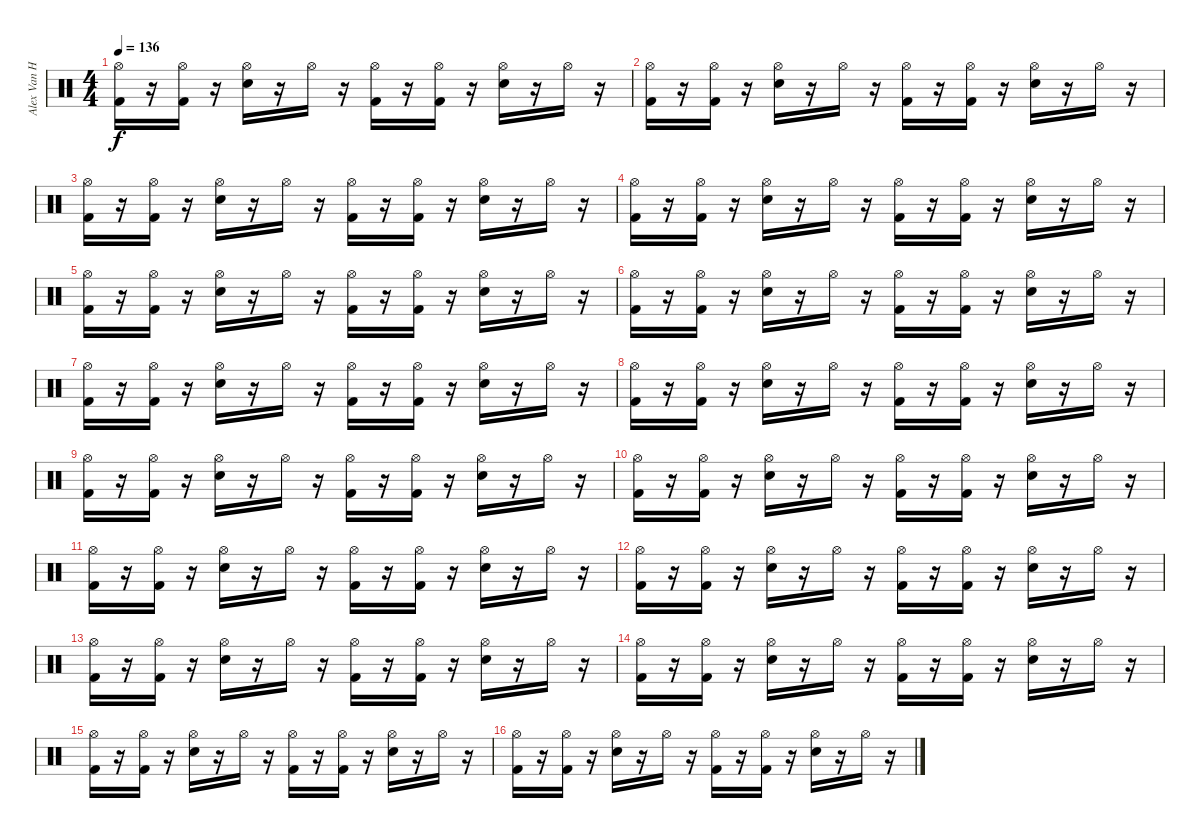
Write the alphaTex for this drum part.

\track ("Alex Van Halen (Drums)" "Alex Van H") {instrument percussion}
\staff {score}
\articulation defaults
\ts (4 4)
\tempo 136
\clef neutral
\ks c
("Hi-Hat (open)" "Kick (hit) 2").16{dy f} r.16 ("Hi-Hat (open)" "Kick (hit) 2").16 r.16 ("Hi-Hat (open)" "Snare (hit) 2").16 r.16 "Hi-Hat (open)".16 r.16 ("Hi-Hat (open)" "Kick (hit) 2").16 r.16 ("Hi-Hat (open)" "Kick (hit) 2").16 r.16 ("Hi-Hat (open)" "Snare (hit) 2").16 r.16 "Hi-Hat (open)".16 r.16 |
("Hi-Hat (open)" "Kick (hit) 2").16 r.16 ("Hi-Hat (open)" "Kick (hit) 2").16 r.16 ("Hi-Hat (open)" "Snare (hit) 2").16 r.16 "Hi-Hat (open)".16 r.16 ("Hi-Hat (open)" "Kick (hit) 2").16 r.16 ("Hi-Hat (open)" "Kick (hit) 2").16 r.16 ("Hi-Hat (open)" "Snare (hit) 2").16 r.16 "Hi-Hat (open)".16 r.16 |
("Hi-Hat (open)" "Kick (hit) 2").16 r.16 ("Hi-Hat (open)" "Kick (hit) 2").16 r.16 ("Hi-Hat (open)" "Snare (hit) 2").16 r.16 "Hi-Hat (open)".16 r.16 ("Hi-Hat (open)" "Kick (hit) 2").16 r.16 ("Hi-Hat (open)" "Kick (hit) 2").16 r.16 ("Hi-Hat (open)" "Snare (hit) 2").16 r.16 "Hi-Hat (open)".16 r.16 |
("Hi-Hat (open)" "Kick (hit) 2").16 r.16 ("Hi-Hat (open)" "Kick (hit) 2").16 r.16 ("Hi-Hat (open)" "Snare (hit) 2").16 r.16 "Hi-Hat (open)".16 r.16 ("Hi-Hat (open)" "Kick (hit) 2").16 r.16 ("Hi-Hat (open)" "Kick (hit) 2").16 r.16 ("Hi-Hat (open)" "Snare (hit) 2").16 r.16 "Hi-Hat (open)".16 r.16 |
("Hi-Hat (open)" "Kick (hit) 2").16 r.16 ("Hi-Hat (open)" "Kick (hit) 2").16 r.16 ("Hi-Hat (open)" "Snare (hit) 2").16 r.16 "Hi-Hat (open)".16 r.16 ("Hi-Hat (open)" "Kick (hit) 2").16 r.16 ("Hi-Hat (open)" "Kick (hit) 2").16 r.16 ("Hi-Hat (open)" "Snare (hit) 2").16 r.16 "Hi-Hat (open)".16 r.16 |
("Hi-Hat (open)" "Kick (hit) 2").16 r.16 ("Hi-Hat (open)" "Kick (hit) 2").16 r.16 ("Hi-Hat (open)" "Snare (hit) 2").16 r.16 "Hi-Hat (open)".16 r.16 ("Hi-Hat (open)" "Kick (hit) 2").16 r.16 ("Hi-Hat (open)" "Kick (hit) 2").16 r.16 ("Hi-Hat (open)" "Snare (hit) 2").16 r.16 "Hi-Hat (open)".16 r.16 |
("Hi-Hat (open)" "Kick (hit) 2").16 r.16 ("Hi-Hat (open)" "Kick (hit) 2").16 r.16 ("Hi-Hat (open)" "Snare (hit) 2").16 r.16 "Hi-Hat (open)".16 r.16 ("Hi-Hat (open)" "Kick (hit) 2").16 r.16 ("Hi-Hat (open)" "Kick (hit) 2").16 r.16 ("Hi-Hat (open)" "Snare (hit) 2").16 r.16 "Hi-Hat (open)".16 r.16 |
("Hi-Hat (open)" "Kick (hit) 2").16 r.16 ("Hi-Hat (open)" "Kick (hit) 2").16 r.16 ("Hi-Hat (open)" "Snare (hit) 2").16 r.16 "Hi-Hat (open)".16 r.16 ("Hi-Hat (open)" "Kick (hit) 2").16 r.16 ("Hi-Hat (open)" "Kick (hit) 2").16 r.16 ("Hi-Hat (open)" "Snare (hit) 2").16 r.16 "Hi-Hat (open)".16 r.16 |
("Hi-Hat (open)" "Kick (hit) 2").16 r.16 ("Hi-Hat (open)" "Kick (hit) 2").16 r.16 ("Hi-Hat (open)" "Snare (hit) 2").16 r.16 "Hi-Hat (open)".16 r.16 ("Hi-Hat (open)" "Kick (hit) 2").16 r.16 ("Hi-Hat (open)" "Kick (hit) 2").16 r.16 ("Hi-Hat (open)" "Snare (hit) 2").16 r.16 "Hi-Hat (open)".16 r.16 |
("Hi-Hat (open)" "Kick (hit) 2").16 r.16 ("Hi-Hat (open)" "Kick (hit) 2").16 r.16 ("Hi-Hat (open)" "Snare (hit) 2").16 r.16 "Hi-Hat (open)".16 r.16 ("Hi-Hat (open)" "Kick (hit) 2").16 r.16 ("Hi-Hat (open)" "Kick (hit) 2").16 r.16 ("Hi-Hat (open)" "Snare (hit) 2").16 r.16 "Hi-Hat (open)".16 r.16 |
("Hi-Hat (open)" "Kick (hit) 2").16 r.16 ("Hi-Hat (open)" "Kick (hit) 2").16 r.16 ("Hi-Hat (open)" "Snare (hit) 2").16 r.16 "Hi-Hat (open)".16 r.16 ("Hi-Hat (open)" "Kick (hit) 2").16 r.16 ("Hi-Hat (open)" "Kick (hit) 2").16 r.16 ("Hi-Hat (open)" "Snare (hit) 2").16 r.16 "Hi-Hat (open)".16 r.16 |
("Hi-Hat (open)" "Kick (hit) 2").16 r.16 ("Hi-Hat (open)" "Kick (hit) 2").16 r.16 ("Hi-Hat (open)" "Snare (hit) 2").16 r.16 "Hi-Hat (open)".16 r.16 ("Hi-Hat (open)" "Kick (hit) 2").16 r.16 ("Hi-Hat (open)" "Kick (hit) 2").16 r.16 ("Hi-Hat (open)" "Snare (hit) 2").16 r.16 "Hi-Hat (open)".16 r.16 |
("Hi-Hat (open)" "Kick (hit) 2").16 r.16 ("Hi-Hat (open)" "Kick (hit) 2").16 r.16 ("Hi-Hat (open)" "Snare (hit) 2").16 r.16 "Hi-Hat (open)".16 r.16 ("Hi-Hat (open)" "Kick (hit) 2").16 r.16 ("Hi-Hat (open)" "Kick (hit) 2").16 r.16 ("Hi-Hat (open)" "Snare (hit) 2").16 r.16 "Hi-Hat (open)".16 r.16 |
("Hi-Hat (open)" "Kick (hit) 2").16 r.16 ("Hi-Hat (open)" "Kick (hit) 2").16 r.16 ("Hi-Hat (open)" "Snare (hit) 2").16 r.16 "Hi-Hat (open)".16 r.16 ("Hi-Hat (open)" "Kick (hit) 2").16 r.16 ("Hi-Hat (open)" "Kick (hit) 2").16 r.16 ("Hi-Hat (open)" "Snare (hit) 2").16 r.16 "Hi-Hat (open)".16 r.16 |
("Hi-Hat (open)" "Kick (hit) 2").16 r.16 ("Hi-Hat (open)" "Kick (hit) 2").16 r.16 ("Hi-Hat (open)" "Snare (hit) 2").16 r.16 "Hi-Hat (open)".16 r.16 ("Hi-Hat (open)" "Kick (hit) 2").16 r.16 ("Hi-Hat (open)" "Kick (hit) 2").16 r.16 ("Hi-Hat (open)" "Snare (hit) 2").16 r.16 "Hi-Hat (open)".16 r.16 |
("Hi-Hat (open)" "Kick (hit) 2").16 r.16 ("Hi-Hat (open)" "Kick (hit) 2").16 r.16 ("Hi-Hat (open)" "Snare (hit) 2").16 r.16 "Hi-Hat (open)".16 r.16 ("Hi-Hat (open)" "Kick (hit) 2").16 r.16 ("Hi-Hat (open)" "Kick (hit) 2").16 r.16 ("Hi-Hat (open)" "Snare (hit) 2").16 r.16 "Hi-Hat (open)".16 r.16
